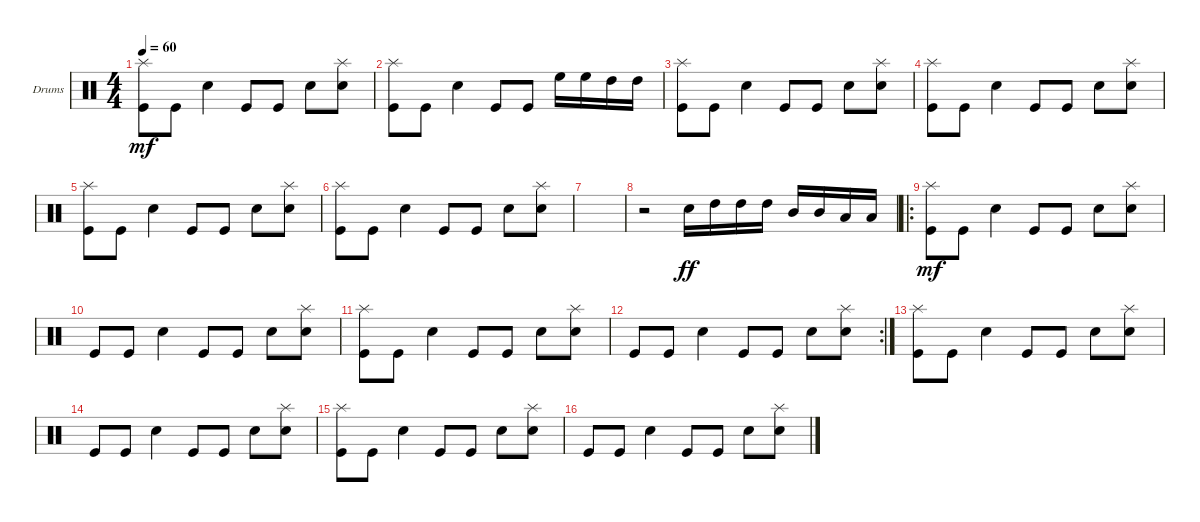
\defaultSystemsLayout 4
\bracketExtendMode groupsimilarinstruments
\firstSystemTrackNameOrientation horizontal
\otherSystemsTrackNameOrientation horizontal
\track ("Kolya" "Drums") {instrument percussion}
\staff {score}
\articulation defaults
\ts (4 4)
\tempo 60
\clef neutral
\ks c
("Kick (hit)" "Splash (hit)").8{dy mf} "Kick (hit)".8 "Snare (hit) 2".4 "Kick (hit)".8 "Kick (hit)".8 "Snare (hit) 2".8 ("Snare (hit) 2" "Splash (hit)").8 |
("Kick (hit)" "Splash (hit)").8 "Kick (hit)".8 "Snare (hit) 2".4 "Kick (hit)".8 "Kick (hit)".8 "High Floor Tom (hit)".16 "High Floor Tom (hit)".16 "High Tom (hit)".16 "High Tom (hit)".16 |
("Kick (hit)" "Splash (hit)").8 "Kick (hit)".8 "Snare (hit) 2".4 "Kick (hit)".8 "Kick (hit)".8 "Snare (hit) 2".8 ("Snare (hit) 2" "Splash (hit)").8 |
("Kick (hit)" "Splash (hit)").8 "Kick (hit)".8 "Snare (hit) 2".4 "Kick (hit)".8 "Kick (hit)".8 "Snare (hit) 2".8 ("Snare (hit) 2" "Splash (hit)").8 |
("Kick (hit)" "Splash (hit)").8 "Kick (hit)".8 "Snare (hit) 2".4 "Kick (hit)".8 "Kick (hit)".8 "Snare (hit) 2".8 ("Snare (hit) 2" "Splash (hit)").8 |
("Kick (hit)" "Splash (hit)").8 "Kick (hit)".8 "Snare (hit) 2".4 "Kick (hit)".8 "Kick (hit)".8 "Snare (hit) 2".8 ("Snare (hit) 2" "Splash (hit)").8 |
|
r.2 "Snare (hit) 2".16{dy ff} "High Tom (hit)".16 "High Tom (hit)".16 "High Tom (hit)".16 "Mid Tom (hit)".16 "Mid Tom (hit)".16 "Low Tom (hit)".16 "Low Tom (hit)".16 |
\ro
("Kick (hit)" "Splash (hit)").8{dy mf} "Kick (hit)".8 "Snare (hit) 2".4 "Kick (hit)".8 "Kick (hit)".8 "Snare (hit) 2".8 ("Snare (hit) 2" "Splash (hit)").8 |
"Kick (hit)".8 "Kick (hit)".8 "Snare (hit) 2".4 "Kick (hit)".8 "Kick (hit)".8 "Snare (hit) 2".8 ("Snare (hit) 2" "Splash (hit)").8 |
("Kick (hit)" "Splash (hit)").8 "Kick (hit)".8 "Snare (hit) 2".4 "Kick (hit)".8 "Kick (hit)".8 "Snare (hit) 2".8 ("Snare (hit) 2" "Splash (hit)").8 |
\rc 2 "Kick (hit)".8 "Kick (hit)".8 "Snare (hit) 2".4 "Kick (hit)".8 "Kick (hit)".8 "Snare (hit) 2".8
("Snare (hit) 2" "Splash (hit)").8 |
("Kick (hit)" "Splash (hit)").8 "Kick (hit)".8 "Snare (hit) 2".4 "Kick (hit)".8 "Kick (hit)".8 "Snare (hit) 2".8 ("Snare (hit) 2" "Splash (hit)").8 |
"Kick (hit)".8 "Kick (hit)".8 "Snare (hit) 2".4 "Kick (hit)".8 "Kick (hit)".8 "Snare (hit) 2".8 ("Snare (hit) 2" "Splash (hit)").8 |
("Kick (hit)" "Splash (hit)").8 "Kick (hit)".8 "Snare (hit) 2".4 "Kick (hit)".8 "Kick (hit)".8 "Snare (hit) 2".8 ("Snare (hit) 2" "Splash (hit)").8 |
"Kick (hit)".8 "Kick (hit)".8 "Snare (hit) 2".4 "Kick (hit)".8 "Kick (hit)".8 "Snare (hit) 2".8 ("Snare (hit) 2" "Splash (hit)").8
